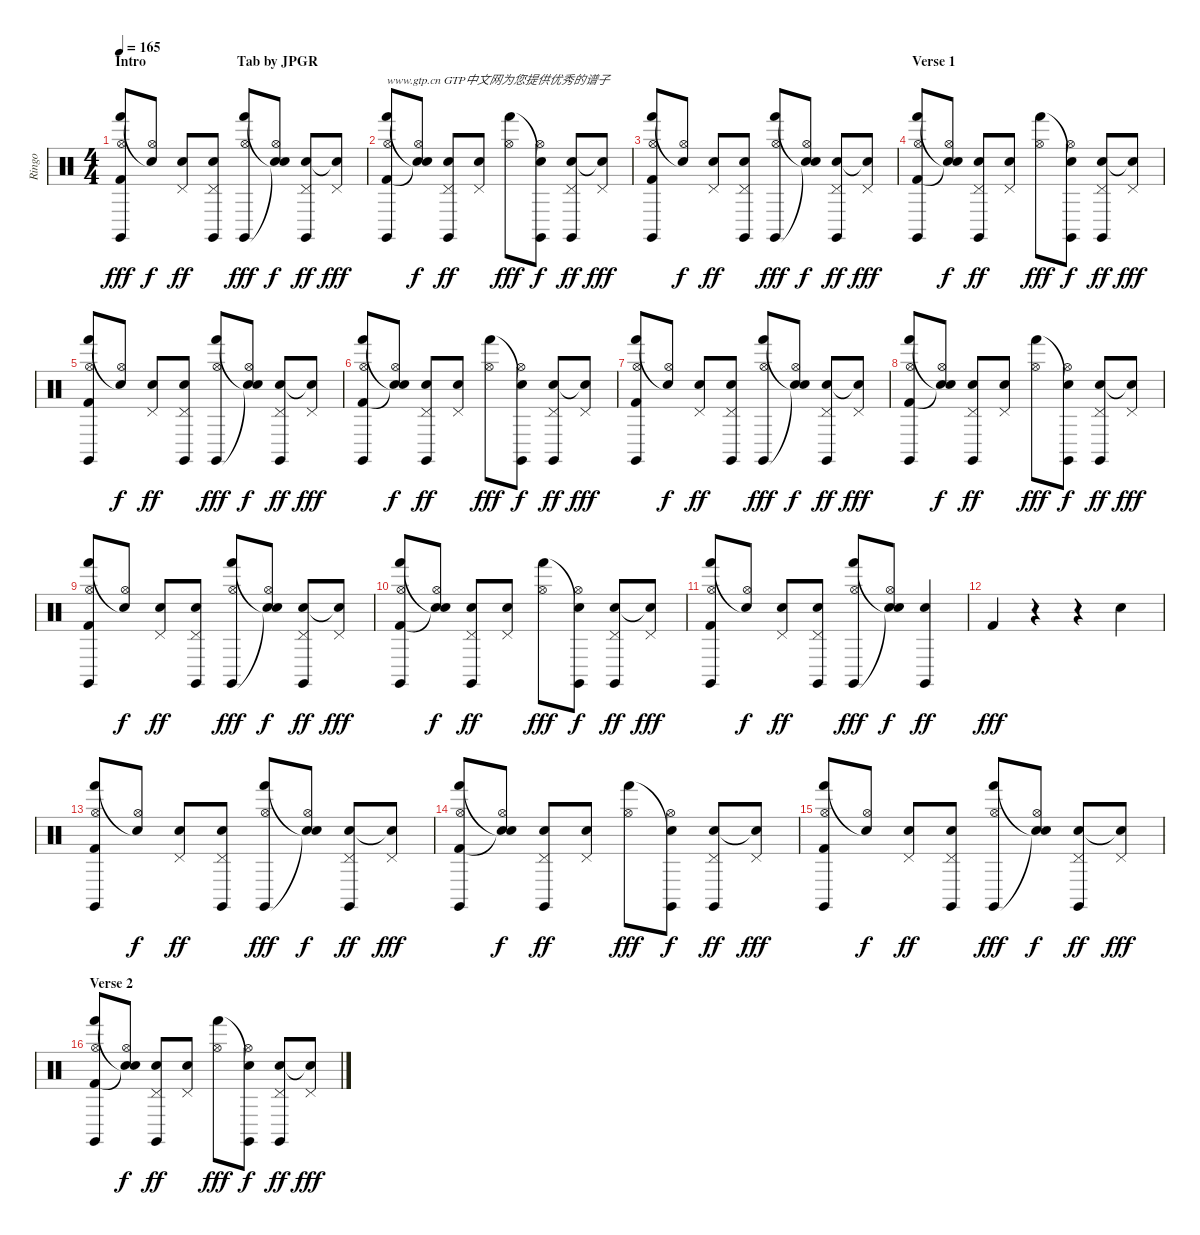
\track ("Ringo" "Ringo") {instrument percussion}
\staff {score}
\articulation defaults
\ts (4 4)
\section ("" "Intro                          Tab by JPGR")
\tempo 165
\clef neutral
\ks c
("Hand (hit)" "Hi-Hat (open)" "Kick (hit) 2" "Claves (hit)").8{dy fff} ("Snare (hit)"{t} "Hi-Hat (open)").8{dy f} ("Pedal Hi-Hat (hit)" "Snare (hit) 2").8{dy ff} ("Pedal Hi-Hat (hit)" "Snare (hit) 2" "Claves (hit)").8 ("Hand (hit)" "Hi-Hat (open)" "Claves (hit)").8{dy fff} ("Snare (hit)"{t} "Hi-Hat (open)" "Snare (hit)"{t}).8{dy f} ("Pedal Hi-Hat (hit)" "Snare (hit) 2" "Claves (hit)").8{dy ff} ("Pedal Hi-Hat (hit)" "Snare (hit)"{t}).8{dy fff} |
("Hand (hit)" "Hi-Hat (open)" "Kick (hit) 2" "Claves (hit)").8{txt "www.gtp.cn GTP中文网为您提供优秀的谱子"} ("Snare (hit)"{t} "Hi-Hat (open)" "Snare (hit)"{t}).8{dy f} ("Pedal Hi-Hat (hit)" "Snare (hit) 2" "Claves (hit)").8{dy ff} ("Pedal Hi-Hat (hit)" "Snare (hit) 2").8 ("Hand (hit)" "Hi-Hat (open)").8{dy fff} ("Snare (hit)"{t} "Hi-Hat (open)" "Claves (hit)").8{dy f} ("Pedal Hi-Hat (hit)" "Snare (hit) 2" "Claves (hit)").8{dy ff} ("Pedal Hi-Hat (hit)" "Snare (hit)"{t}).8{dy fff} |
("Hand (hit)" "Hi-Hat (open)" "Kick (hit) 2" "Claves (hit)").8 ("Snare (hit)"{t} "Hi-Hat (open)").8{dy f} ("Pedal Hi-Hat (hit)" "Snare (hit) 2").8{dy ff} ("Pedal Hi-Hat (hit)" "Snare (hit) 2" "Claves (hit)").8 ("Hand (hit)" "Hi-Hat (open)" "Claves (hit)").8{dy fff} ("Snare (hit)"{t} "Hi-Hat (open)" "Snare (hit)"{t}).8{dy f} ("Pedal Hi-Hat (hit)" "Snare (hit) 2" "Claves (hit)").8{dy ff} ("Pedal Hi-Hat (hit)" "Snare (hit)"{t}).8{dy fff} |
\section ("" "Verse 1")
("Hand (hit)" "Hi-Hat (open)" "Kick (hit) 2" "Claves (hit)").8 ("Snare (hit)"{t} "Hi-Hat (open)" "Snare (hit)"{t}).8{dy f} ("Pedal Hi-Hat (hit)" "Snare (hit) 2" "Claves (hit)").8{dy ff} ("Pedal Hi-Hat (hit)" "Snare (hit) 2").8 ("Hand (hit)" "Hi-Hat (open)").8{dy fff} ("Snare (hit)"{t} "Hi-Hat (open)" "Claves (hit)").8{dy f} ("Pedal Hi-Hat (hit)" "Snare (hit) 2" "Claves (hit)").8{dy ff} ("Pedal Hi-Hat (hit)" "Snare (hit)"{t}).8{dy fff} |
("Hand (hit)" "Hi-Hat (open)" "Kick (hit) 2" "Claves (hit)").8 ("Snare (hit)"{t} "Hi-Hat (open)").8{dy f} ("Pedal Hi-Hat (hit)" "Snare (hit) 2").8{dy ff} ("Pedal Hi-Hat (hit)" "Snare (hit) 2" "Claves (hit)").8 ("Hand (hit)" "Hi-Hat (open)" "Claves (hit)").8{dy fff} ("Snare (hit)"{t} "Hi-Hat (open)" "Snare (hit)"{t}).8{dy f} ("Pedal Hi-Hat (hit)" "Snare (hit) 2" "Claves (hit)").8{dy ff} ("Pedal Hi-Hat (hit)" "Snare (hit)"{t}).8{dy fff} |
("Hand (hit)" "Hi-Hat (open)" "Kick (hit) 2" "Claves (hit)").8 ("Snare (hit)"{t} "Hi-Hat (open)" "Snare (hit)"{t}).8{dy f} ("Pedal Hi-Hat (hit)" "Snare (hit) 2" "Claves (hit)").8{dy ff} ("Pedal Hi-Hat (hit)" "Snare (hit) 2").8 ("Hand (hit)" "Hi-Hat (open)").8{dy fff} ("Snare (hit)"{t} "Hi-Hat (open)" "Claves (hit)").8{dy f} ("Pedal Hi-Hat (hit)" "Snare (hit) 2" "Claves (hit)").8{dy ff} ("Pedal Hi-Hat (hit)" "Snare (hit)"{t}).8{dy fff} |
("Hand (hit)" "Hi-Hat (open)" "Kick (hit) 2" "Claves (hit)").8 ("Snare (hit)"{t} "Hi-Hat (open)").8{dy f} ("Pedal Hi-Hat (hit)" "Snare (hit) 2").8{dy ff} ("Pedal Hi-Hat (hit)" "Snare (hit) 2" "Claves (hit)").8 ("Hand (hit)" "Hi-Hat (open)" "Claves (hit)").8{dy fff} ("Snare (hit)"{t} "Hi-Hat (open)" "Snare (hit)"{t}).8{dy f} ("Pedal Hi-Hat (hit)" "Snare (hit) 2" "Claves (hit)").8{dy ff} ("Pedal Hi-Hat (hit)" "Snare (hit)"{t}).8{dy fff} |
("Hand (hit)" "Hi-Hat (open)" "Kick (hit) 2" "Claves (hit)").8 ("Snare (hit)"{t} "Hi-Hat (open)" "Snare (hit)"{t}).8{dy f} ("Pedal Hi-Hat (hit)" "Snare (hit) 2" "Claves (hit)").8{dy ff} ("Pedal Hi-Hat (hit)" "Snare (hit) 2").8 ("Hand (hit)" "Hi-Hat (open)").8{dy fff} ("Snare (hit)"{t} "Hi-Hat (open)" "Claves (hit)").8{dy f} ("Pedal Hi-Hat (hit)" "Snare (hit) 2" "Claves (hit)").8{dy ff} ("Pedal Hi-Hat (hit)" "Snare (hit)"{t}).8{dy fff} |
("Hand (hit)" "Hi-Hat (open)" "Kick (hit) 2" "Claves (hit)").8 ("Snare (hit)"{t} "Hi-Hat (open)").8{dy f} ("Pedal Hi-Hat (hit)" "Snare (hit) 2").8{dy ff} ("Pedal Hi-Hat (hit)" "Snare (hit) 2" "Claves (hit)").8 ("Hand (hit)" "Hi-Hat (open)" "Claves (hit)").8{dy fff} ("Snare (hit)"{t} "Hi-Hat (open)" "Snare (hit)"{t}).8{dy f} ("Pedal Hi-Hat (hit)" "Snare (hit) 2" "Claves (hit)").8{dy ff} ("Pedal Hi-Hat (hit)" "Snare (hit)"{t}).8{dy fff} |
("Hand (hit)" "Hi-Hat (open)" "Kick (hit) 2" "Claves (hit)").8 ("Snare (hit)"{t} "Hi-Hat (open)" "Snare (hit)"{t}).8{dy f} ("Pedal Hi-Hat (hit)" "Snare (hit) 2" "Claves (hit)").8{dy ff} ("Pedal Hi-Hat (hit)" "Snare (hit) 2").8 ("Hand (hit)" "Hi-Hat (open)").8{dy fff} ("Snare (hit)"{t} "Hi-Hat (open)" "Claves (hit)").8{dy f} ("Pedal Hi-Hat (hit)" "Snare (hit) 2" "Claves (hit)").8{dy ff} ("Pedal Hi-Hat (hit)" "Snare (hit)"{t}).8{dy fff} |
("Hand (hit)" "Hi-Hat (open)" "Kick (hit) 2" "Claves (hit)").8 ("Snare (hit)"{t} "Hi-Hat (open)").8{dy f} ("Pedal Hi-Hat (hit)" "Snare (hit) 2").8{dy ff} ("Pedal Hi-Hat (hit)" "Snare (hit) 2" "Claves (hit)").8 ("Hand (hit)" "Hi-Hat (open)" "Claves (hit)").8{dy fff} ("Snare (hit)"{t} "Hi-Hat (open)" "Snare (hit)"{t}).8{dy f} ("Snare (hit) 2" "Claves (hit)").4{dy ff} |
"Kick (hit) 2".4{dy fff} r.4 r.4 "Snare (hit) 2".4 |
("Hand (hit)" "Hi-Hat (open)" "Kick (hit) 2" "Claves (hit)").8 ("Snare (hit)"{t} "Hi-Hat (open)").8{dy f} ("Pedal Hi-Hat (hit)" "Snare (hit) 2").8{dy ff} ("Pedal Hi-Hat (hit)" "Snare (hit) 2" "Claves (hit)").8 ("Hand (hit)" "Hi-Hat (open)" "Claves (hit)").8{dy fff} ("Snare (hit)"{t} "Hi-Hat (open)" "Snare (hit)"{t}).8{dy f} ("Pedal Hi-Hat (hit)" "Snare (hit) 2" "Claves (hit)").8{dy ff} ("Pedal Hi-Hat (hit)" "Snare (hit)"{t}).8{dy fff} |
("Hand (hit)" "Hi-Hat (open)" "Kick (hit) 2" "Claves (hit)").8 ("Snare (hit)"{t} "Hi-Hat (open)" "Snare (hit)"{t}).8{dy f} ("Pedal Hi-Hat (hit)" "Snare (hit) 2" "Claves (hit)").8{dy ff} ("Pedal Hi-Hat (hit)" "Snare (hit) 2").8 ("Hand (hit)" "Hi-Hat (open)").8{dy fff} ("Snare (hit)"{t} "Hi-Hat (open)" "Claves (hit)").8{dy f} ("Pedal Hi-Hat (hit)" "Snare (hit) 2" "Claves (hit)").8{dy ff} ("Pedal Hi-Hat (hit)" "Snare (hit)"{t}).8{dy fff} |
("Hand (hit)" "Hi-Hat (open)" "Kick (hit) 2" "Claves (hit)").8 ("Snare (hit)"{t} "Hi-Hat (open)").8{dy f} ("Pedal Hi-Hat (hit)" "Snare (hit) 2").8{dy ff} ("Pedal Hi-Hat (hit)" "Snare (hit) 2" "Claves (hit)").8 ("Hand (hit)" "Hi-Hat (open)" "Claves (hit)").8{dy fff} ("Snare (hit)"{t} "Hi-Hat (open)" "Snare (hit)"{t}).8{dy f} ("Pedal Hi-Hat (hit)" "Snare (hit) 2" "Claves (hit)").8{dy ff} ("Pedal Hi-Hat (hit)" "Snare (hit)"{t}).8{dy fff} |
\section ("" "Verse 2")
("Hand (hit)" "Hi-Hat (open)" "Kick (hit) 2" "Claves (hit)").8 ("Snare (hit)"{t} "Hi-Hat (open)" "Snare (hit)"{t}).8{dy f} ("Pedal Hi-Hat (hit)" "Snare (hit) 2" "Claves (hit)").8{dy ff} ("Pedal Hi-Hat (hit)" "Snare (hit) 2").8 ("Hand (hit)" "Hi-Hat (open)").8{dy fff} ("Snare (hit)"{t} "Hi-Hat (open)" "Claves (hit)").8{dy f} ("Pedal Hi-Hat (hit)" "Snare (hit) 2" "Claves (hit)").8{dy ff} ("Pedal Hi-Hat (hit)" "Snare (hit)"{t}).8{dy fff}
